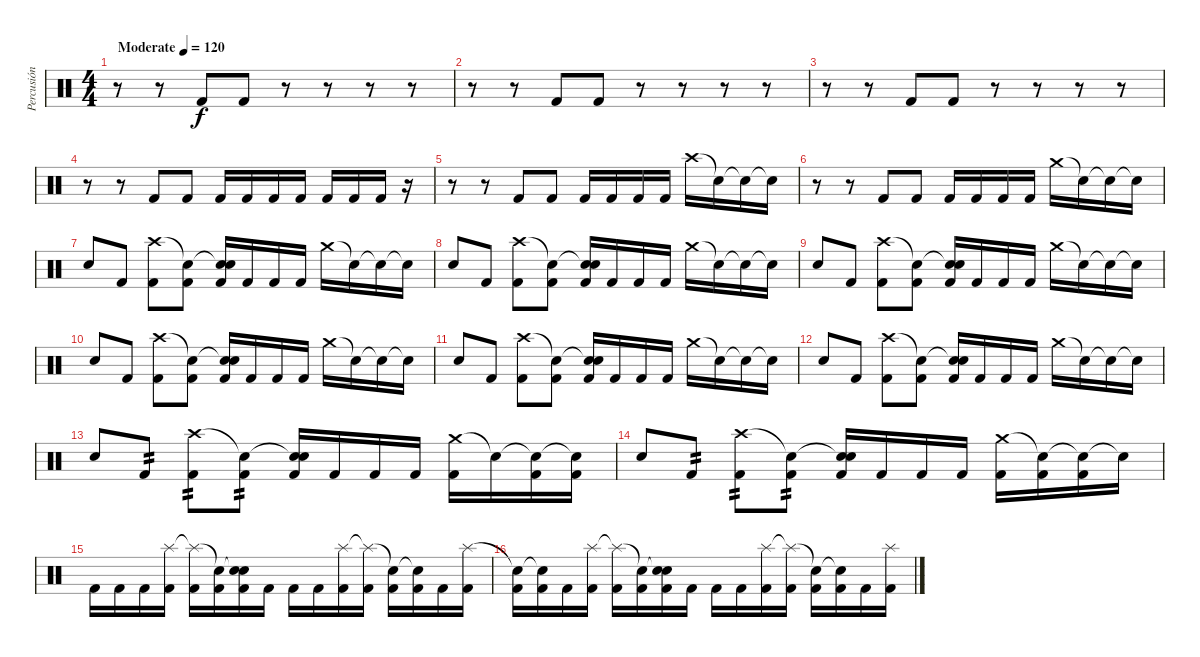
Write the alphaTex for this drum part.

\track ("Percusión" "Percusión") {instrument percussion}
\staff {score}
\articulation defaults
\ts (4 4)
\tempo (120 "Moderate")
\clef neutral
\ks c
r.8{dy f} r.8 "Kick (hit) 2".8 "Kick (hit) 2".8 r.8 r.8 r.8 r.8 |
r.8 r.8 "Kick (hit) 2".8 "Kick (hit) 2".8 r.8 r.8 r.8 r.8 |
r.8 r.8 "Kick (hit) 2".8 "Kick (hit) 2".8 r.8 r.8 r.8 r.8 |
r.8 r.8 "Kick (hit) 2".8 "Kick (hit) 2".8 "Kick (hit) 2".16 "Kick (hit) 2".16 "Kick (hit) 2".16 "Kick (hit) 2".16 "Kick (hit) 2".16 "Kick (hit) 2".16 "Kick (hit) 2".16 r.16 |
r.8 r.8 "Kick (hit) 2".8 "Kick (hit) 2".8 "Kick (hit) 2".16 "Kick (hit) 2".16 "Kick (hit) 2".16 "Kick (hit) 2".16 "Crash high (hit)".16 "Snare (hit)"{t}.16 "Snare (hit)"{t}.16 "Snare (hit)"{t}.16 |
r.8 r.8 "Kick (hit) 2".8 "Kick (hit) 2".8 "Kick (hit) 2".16 "Kick (hit) 2".16 "Kick (hit) 2".16 "Kick (hit) 2".16 "Crash medium (hit)".16 "Snare (hit)"{t}.16 "Snare (hit)"{t}.16 "Snare (hit)"{t}.16 |
"Electric Snare (hit)".8 "Kick (hit) 2".8 ("Crash high (hit)" "Kick (hit) 2").8 ("Snare (hit)"{t} "Kick (hit) 2").8 ("Snare (hit)"{t} "Electric Snare (hit)" "Kick (hit) 2").16 "Kick (hit) 2".16 "Kick (hit) 2".16 "Kick (hit) 2".16 "Crash medium (hit)".16 "Snare (hit)"{t}.16 "Snare (hit)"{t}.16 "Snare (hit)"{t}.16 |
"Electric Snare (hit)".8 "Kick (hit) 2".8 ("Crash high (hit)" "Kick (hit) 2").8 ("Snare (hit)"{t} "Kick (hit) 2").8 ("Snare (hit)"{t} "Electric Snare (hit)" "Kick (hit) 2").16 "Kick (hit) 2".16 "Kick (hit) 2".16 "Kick (hit) 2".16 "Crash medium (hit)".16 "Snare (hit)"{t}.16 "Snare (hit)"{t}.16 "Snare (hit)"{t}.16 |
"Electric Snare (hit)".8 "Kick (hit) 2".8 ("Crash high (hit)" "Kick (hit) 2").8 ("Snare (hit)"{t} "Kick (hit) 2").8 ("Snare (hit)"{t} "Electric Snare (hit)" "Kick (hit) 2").16 "Kick (hit) 2".16 "Kick (hit) 2".16 "Kick (hit) 2".16 "Crash medium (hit)".16 "Snare (hit)"{t}.16 "Snare (hit)"{t}.16 "Snare (hit)"{t}.16 |
"Electric Snare (hit)".8 "Kick (hit) 2".8 ("Crash high (hit)" "Kick (hit) 2").8 ("Snare (hit)"{t} "Kick (hit) 2").8 ("Snare (hit)"{t} "Electric Snare (hit)" "Kick (hit) 2").16 "Kick (hit) 2".16 "Kick (hit) 2".16 "Kick (hit) 2".16 "Crash medium (hit)".16 "Snare (hit)"{t}.16 "Snare (hit)"{t}.16 "Snare (hit)"{t}.16 |
"Electric Snare (hit)".8 "Kick (hit) 2".8 ("Crash high (hit)" "Kick (hit) 2").8 ("Snare (hit)"{t} "Kick (hit) 2").8 ("Snare (hit)"{t} "Electric Snare (hit)" "Kick (hit) 2").16 "Kick (hit) 2".16 "Kick (hit) 2".16 "Kick (hit) 2".16 "Crash medium (hit)".16 "Snare (hit)"{t}.16 "Snare (hit)"{t}.16 "Snare (hit)"{t}.16 |
"Electric Snare (hit)".8 "Kick (hit) 2".8 ("Crash high (hit)" "Kick (hit) 2").8 ("Snare (hit)"{t} "Kick (hit) 2").8 ("Snare (hit)"{t} "Electric Snare (hit)" "Kick (hit) 2").16 "Kick (hit) 2".16 "Kick (hit) 2".16 "Kick (hit) 2".16 "Crash medium (hit)".16 "Snare (hit)"{t}.16 "Snare (hit)"{t}.16 "Snare (hit)"{t}.16 |
"Electric Snare (hit)".8 "Kick (hit) 2".8{tp 2} ("Crash high (hit)" "Kick (hit) 2").8{tp 2} ("Snare (hit)"{t} "Kick (hit) 2").8{tp 2} ("Snare (hit)"{t} "Electric Snare (hit)" "Kick (hit) 2").16 "Kick (hit) 2".16 "Kick (hit) 2".16 "Kick (hit) 2".16 ("Crash medium (hit)" "Kick (hit) 2").16 "Snare (hit)"{t}.16 ("Snare (hit)"{t} "Kick (hit) 2").16 ("Snare (hit)"{t} "Kick (hit) 2").16 |
"Electric Snare (hit)".8 "Kick (hit) 2".8{tp 2} ("Crash high (hit)" "Kick (hit) 2").8{tp 2} ("Snare (hit)"{t} "Kick (hit) 2").8{tp 2} ("Snare (hit)"{t} "Electric Snare (hit)" "Kick (hit) 2").16 "Kick (hit) 2".16 "Kick (hit) 2".16 "Kick (hit) 2".16 ("Crash medium (hit)" "Kick (hit) 2").16 ("Snare (hit)"{t} "Kick (hit) 2").16 ("Snare (hit)"{t} "Kick (hit) 2").16 "Snare (hit)"{t}.16 |
"Kick (hit) 2".16 "Kick (hit) 2".16 "Kick (hit) 2".16 ("Splash (hit)" "Kick (hit) 2").16 ("Splash (hit)"{t} "Kick (hit) 2").16 ("Snare (hit)"{t} "Kick (hit) 2").16 ("Snare (hit)"{t} "Electric Snare (hit)" "Kick (hit) 2").16 "Kick (hit) 2".16 "Kick (hit) 2".16 "Kick (hit) 2".16 ("Splash (hit)" "Kick (hit) 2").16 ("Splash (hit)"{t} "Kick (hit) 2").16 ("Snare (hit)"{t} "Kick (hit) 2").16 ("Snare (hit)"{t} "Kick (hit) 2").16 "Kick (hit) 2".16 ("Splash (hit)" "Kick (hit) 2").16 |
("Snare (hit)"{t} "Kick (hit) 2").16 ("Snare (hit)"{t} "Kick (hit) 2").16 "Kick (hit) 2".16 ("Splash (hit)" "Kick (hit) 2").16 ("Splash (hit)"{t} "Kick (hit) 2").16 ("Snare (hit)"{t} "Kick (hit) 2").16 ("Snare (hit)"{t} "Electric Snare (hit)" "Kick (hit) 2").16 "Kick (hit) 2".16 "Kick (hit) 2".16 "Kick (hit) 2".16 ("Splash (hit)" "Kick (hit) 2").16 ("Splash (hit)"{t} "Kick (hit) 2").16 ("Snare (hit)"{t} "Kick (hit) 2").16 ("Snare (hit)"{t} "Kick (hit) 2").16 "Kick (hit) 2".16 ("Splash (hit)" "Kick (hit) 2").16
